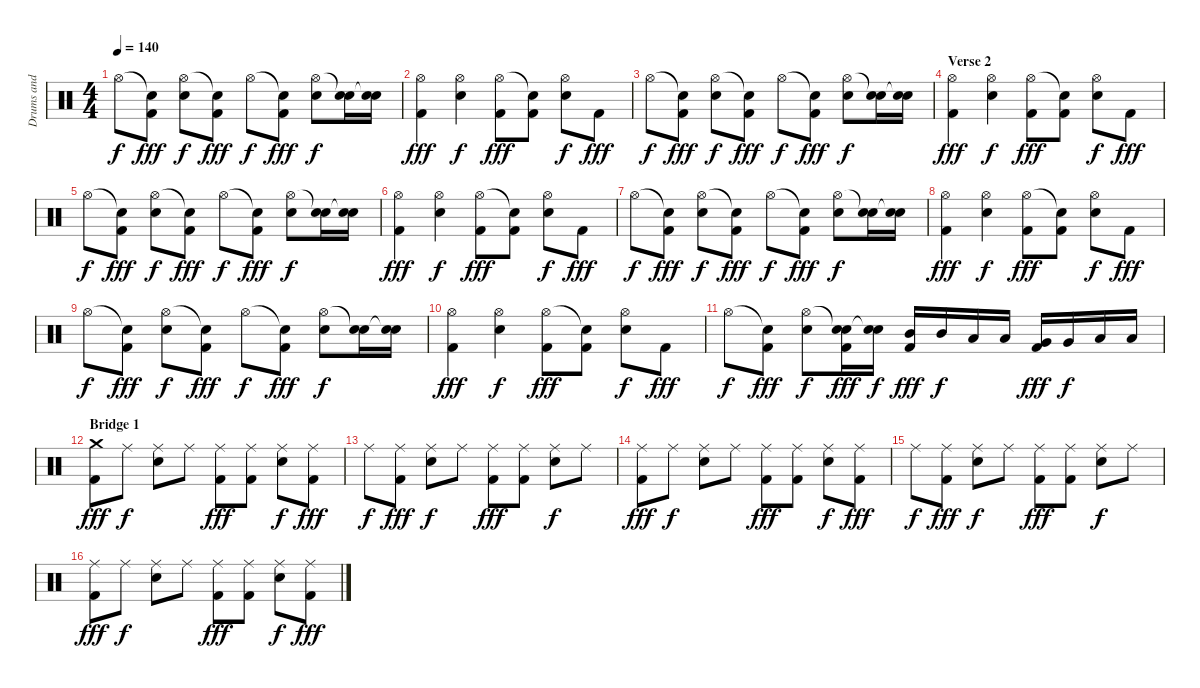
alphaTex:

\track ("Drums and Percussion" "Drums and ") {instrument percussion}
\staff {score}
\articulation defaults
\ts (4 4)
\tempo 140
\clef neutral
\ks c "Hi-Hat (open)".8{dy f}
("Snare (hit)"{t} "Kick (hit) 2").8{dy fff} ("Hi-Hat (open)" "Snare (hit) 2").8{dy f} ("Snare (hit)"{t} "Kick (hit) 2").8{dy fff} "Hi-Hat (open)".8{dy f} ("Snare (hit)"{t} "Kick (hit) 2").8{dy fff} ("Hi-Hat (open)" "Snare (hit) 2").8{dy f} ("Snare (hit)"{t} "Snare (hit) 2").16 ("Snare (hit)"{t} "Snare (hit) 2").16 |
("Hi-Hat (open)" "Kick (hit) 2").4{dy fff} ("Hi-Hat (open)" "Snare (hit) 2").4{dy f} ("Hi-Hat (open)" "Kick (hit) 2").8{dy fff} ("Snare (hit)"{t} "Kick (hit) 2").8 ("Hi-Hat (open)" "Snare (hit) 2").8{dy f} "Kick (hit) 2".8{dy fff} |
"Hi-Hat (open)".8{dy f} ("Snare (hit)"{t} "Kick (hit) 2").8{dy fff} ("Hi-Hat (open)" "Snare (hit) 2").8{dy f} ("Snare (hit)"{t} "Kick (hit) 2").8{dy fff} "Hi-Hat (open)".8{dy f} ("Snare (hit)"{t} "Kick (hit) 2").8{dy fff} ("Hi-Hat (open)" "Snare (hit) 2").8{dy f} ("Snare (hit)"{t} "Snare (hit) 2").16 ("Snare (hit)"{t} "Snare (hit) 2").16 |
\section ("" "Verse 2")
("Hi-Hat (open)" "Kick (hit) 2").4{dy fff} ("Hi-Hat (open)" "Snare (hit) 2").4{dy f} ("Hi-Hat (open)" "Kick (hit) 2").8{dy fff} ("Snare (hit)"{t} "Kick (hit) 2").8 ("Hi-Hat (open)" "Snare (hit) 2").8{dy f} "Kick (hit) 2".8{dy fff} |
"Hi-Hat (open)".8{dy f} ("Snare (hit)"{t} "Kick (hit) 2").8{dy fff} ("Hi-Hat (open)" "Snare (hit) 2").8{dy f} ("Snare (hit)"{t} "Kick (hit) 2").8{dy fff} "Hi-Hat (open)".8{dy f} ("Snare (hit)"{t} "Kick (hit) 2").8{dy fff} ("Hi-Hat (open)" "Snare (hit) 2").8{dy f} ("Snare (hit)"{t} "Snare (hit) 2").16 ("Snare (hit)"{t} "Snare (hit) 2").16 |
("Hi-Hat (open)" "Kick (hit) 2").4{dy fff} ("Hi-Hat (open)" "Snare (hit) 2").4{dy f} ("Hi-Hat (open)" "Kick (hit) 2").8{dy fff} ("Snare (hit)"{t} "Kick (hit) 2").8 ("Hi-Hat (open)" "Snare (hit) 2").8{dy f} "Kick (hit) 2".8{dy fff} |
"Hi-Hat (open)".8{dy f} ("Snare (hit)"{t} "Kick (hit) 2").8{dy fff} ("Hi-Hat (open)" "Snare (hit) 2").8{dy f} ("Snare (hit)"{t} "Kick (hit) 2").8{dy fff} "Hi-Hat (open)".8{dy f} ("Snare (hit)"{t} "Kick (hit) 2").8{dy fff} ("Hi-Hat (open)" "Snare (hit) 2").8{dy f} ("Snare (hit)"{t} "Snare (hit) 2").16 ("Snare (hit)"{t} "Snare (hit) 2").16 |
("Hi-Hat (open)" "Kick (hit) 2").4{dy fff} ("Hi-Hat (open)" "Snare (hit) 2").4{dy f} ("Hi-Hat (open)" "Kick (hit) 2").8{dy fff} ("Snare (hit)"{t} "Kick (hit) 2").8 ("Hi-Hat (open)" "Snare (hit) 2").8{dy f} "Kick (hit) 2".8{dy fff} |
"Hi-Hat (open)".8{dy f} ("Snare (hit)"{t} "Kick (hit) 2").8{dy fff} ("Hi-Hat (open)" "Snare (hit) 2").8{dy f} ("Snare (hit)"{t} "Kick (hit) 2").8{dy fff} "Hi-Hat (open)".8{dy f} ("Snare (hit)"{t} "Kick (hit) 2").8{dy fff} ("Hi-Hat (open)" "Snare (hit) 2").8{dy f} ("Snare (hit)"{t} "Snare (hit) 2").16 ("Snare (hit)"{t} "Snare (hit) 2").16 |
("Hi-Hat (open)" "Kick (hit) 2").4{dy fff} ("Hi-Hat (open)" "Snare (hit) 2").4{dy f} ("Hi-Hat (open)" "Kick (hit) 2").8{dy fff} ("Snare (hit)"{t} "Kick (hit) 2").8 ("Hi-Hat (open)" "Snare (hit) 2").8{dy f} "Kick (hit) 2".8{dy fff} |
"Hi-Hat (open)".8{dy f} ("Snare (hit)"{t} "Kick (hit) 2").8{dy fff} ("Hi-Hat (open)" "Snare (hit) 2").8{dy f} ("Snare (hit)"{t} "Snare (hit) 2" "Kick (hit) 2").16{dy fff} ("Snare (hit)"{t} "Snare (hit) 2").16{dy f} ("Mid Tom (hit)" "Kick (hit) 2").16{dy fff} "Mid Tom (hit)".16{dy f} "Low Tom (hit)".16 "Low Tom (hit)".16 ("Very Low Tom (hit)" "Kick (hit) 2").16{dy fff} "Very Low Tom (hit)".16{dy f} "Low Floor Tom (hit)".16 "Low Floor Tom (hit)".16 |
\section ("" "Bridge 1")
("Crash medium (hit)" "Kick (hit) 2").8{dy fff} "Ride (middle)".8{dy f} ("Ride (middle)" "Snare (hit) 2").8 "Ride (middle)".8 ("Ride (middle)" "Kick (hit) 2").8{dy fff} ("Ride (middle)" "Kick (hit) 2").8 ("Ride (middle)" "Snare (hit) 2").8{dy f} ("Ride (middle)" "Kick (hit) 2").8{dy fff} |
"Ride (middle)".8{dy f} ("Ride (middle)" "Kick (hit) 2").8{dy fff} ("Ride (middle)" "Snare (hit) 2").8{dy f} "Ride (middle)".8 ("Ride (middle)" "Kick (hit) 2").8{dy fff} ("Ride (middle)" "Kick (hit) 2").8 ("Ride (middle)" "Snare (hit) 2").8{dy f} "Ride (middle)".8 |
("Ride (middle)" "Kick (hit) 2").8{dy fff} "Ride (middle)".8{dy f} ("Ride (middle)" "Snare (hit) 2").8 "Ride (middle)".8 ("Ride (middle)" "Kick (hit) 2").8{dy fff} ("Ride (middle)" "Kick (hit) 2").8 ("Ride (middle)" "Snare (hit) 2").8{dy f} ("Ride (middle)" "Kick (hit) 2").8{dy fff} |
"Ride (middle)".8{dy f} ("Ride (middle)" "Kick (hit) 2").8{dy fff} ("Ride (middle)" "Snare (hit) 2").8{dy f} "Ride (middle)".8 ("Ride (middle)" "Kick (hit) 2").8{dy fff} ("Ride (middle)" "Kick (hit) 2").8 ("Ride (middle)" "Snare (hit) 2").8{dy f} "Ride (middle)".8 |
("Ride (middle)" "Kick (hit) 2").8{dy fff} "Ride (middle)".8{dy f} ("Ride (middle)" "Snare (hit) 2").8 "Ride (middle)".8 ("Ride (middle)" "Kick (hit) 2").8{dy fff} ("Ride (middle)" "Kick (hit) 2").8 ("Ride (middle)" "Snare (hit) 2").8{dy f} ("Ride (middle)" "Kick (hit) 2").8{dy fff}
